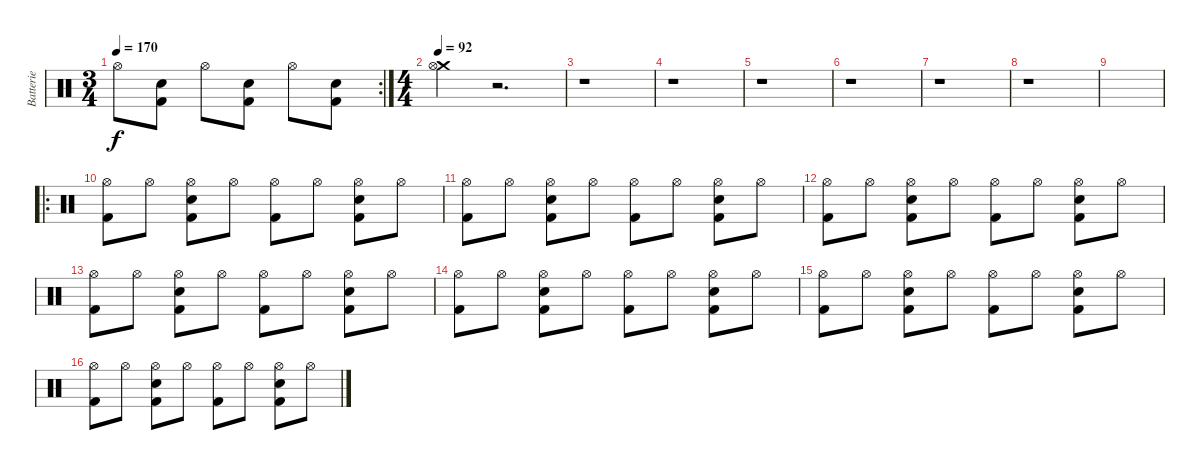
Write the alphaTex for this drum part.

\track ("Batterie" "Batterie") {instrument percussion}
\staff {score}
\articulation defaults
\rc 2
\ts (3 4)
\tempo 170
\clef neutral
\ks c "Hi-Hat (open)".8{dy f}
("Electric Snare (hit)" "Kick (hit) 2").8 "Hi-Hat (open)".8 ("Electric Snare (hit)" "Kick (hit) 2").8 "Hi-Hat (open)".8 ("Electric Snare (hit)" "Kick (hit) 2").8 |
\ts (4 4)
\tempo 92
("Crash medium (hit)" "Hi-Hat (open)").4 r.2{d} |
r.1 |
r.1 |
r.1 |
r.1 |
r.1 |
r.1 |
|
\ro
("Hi-Hat (open)" "Kick (hit) 2").8 "Hi-Hat (open)".8 ("Hi-Hat (open)" "Electric Snare (hit)" "Kick (hit) 2").8 "Hi-Hat (open)".8 ("Hi-Hat (open)" "Kick (hit) 2").8 "Hi-Hat (open)".8 ("Hi-Hat (open)" "Electric Snare (hit)" "Kick (hit) 2").8 "Hi-Hat (open)".8 |
("Hi-Hat (open)" "Kick (hit) 2").8 "Hi-Hat (open)".8 ("Hi-Hat (open)" "Electric Snare (hit)" "Kick (hit) 2").8 "Hi-Hat (open)".8 ("Hi-Hat (open)" "Kick (hit) 2").8 "Hi-Hat (open)".8 ("Hi-Hat (open)" "Electric Snare (hit)" "Kick (hit) 2").8 "Hi-Hat (open)".8 |
("Hi-Hat (open)" "Kick (hit) 2").8 "Hi-Hat (open)".8 ("Hi-Hat (open)" "Electric Snare (hit)" "Kick (hit) 2").8 "Hi-Hat (open)".8 ("Hi-Hat (open)" "Kick (hit) 2").8 "Hi-Hat (open)".8 ("Hi-Hat (open)" "Electric Snare (hit)" "Kick (hit) 2").8 "Hi-Hat (open)".8 |
("Hi-Hat (open)" "Kick (hit) 2").8 "Hi-Hat (open)".8 ("Hi-Hat (open)" "Electric Snare (hit)" "Kick (hit) 2").8 "Hi-Hat (open)".8 ("Hi-Hat (open)" "Kick (hit) 2").8 "Hi-Hat (open)".8 ("Hi-Hat (open)" "Electric Snare (hit)" "Kick (hit) 2").8 "Hi-Hat (open)".8 |
("Hi-Hat (open)" "Kick (hit) 2").8 "Hi-Hat (open)".8 ("Hi-Hat (open)" "Electric Snare (hit)" "Kick (hit) 2").8 "Hi-Hat (open)".8 ("Hi-Hat (open)" "Kick (hit) 2").8 "Hi-Hat (open)".8 ("Hi-Hat (open)" "Electric Snare (hit)" "Kick (hit) 2").8 "Hi-Hat (open)".8 |
("Hi-Hat (open)" "Kick (hit) 2").8 "Hi-Hat (open)".8 ("Hi-Hat (open)" "Electric Snare (hit)" "Kick (hit) 2").8 "Hi-Hat (open)".8 ("Hi-Hat (open)" "Kick (hit) 2").8 "Hi-Hat (open)".8 ("Hi-Hat (open)" "Electric Snare (hit)" "Kick (hit) 2").8 "Hi-Hat (open)".8 |
("Hi-Hat (open)" "Kick (hit) 2").8 "Hi-Hat (open)".8 ("Hi-Hat (open)" "Electric Snare (hit)" "Kick (hit) 2").8 "Hi-Hat (open)".8 ("Hi-Hat (open)" "Kick (hit) 2").8 "Hi-Hat (open)".8 ("Hi-Hat (open)" "Electric Snare (hit)" "Kick (hit) 2").8 "Hi-Hat (open)".8
